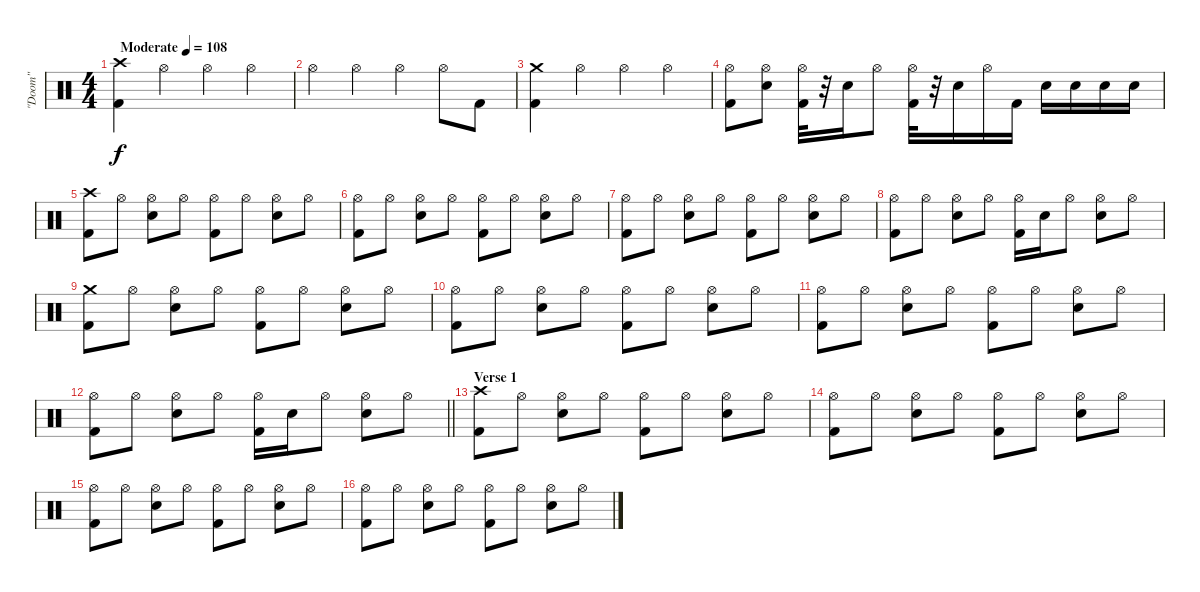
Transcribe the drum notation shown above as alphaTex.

\track ("\"Doom\"" "\"Doom\"") {instrument percussion}
\staff {score}
\articulation defaults
\ts (4 4)
\tempo (108 "Moderate")
\clef neutral
\ks c
("Crash high (hit)" "Kick (hit) 2").4{dy f} "Hi-Hat (open)".4 "Hi-Hat (open)".4 "Hi-Hat (open)".4 |
"Hi-Hat (open)".4 "Hi-Hat (open)".4 "Hi-Hat (open)".4 "Hi-Hat (open)".8 "Kick (hit) 2".8 |
("Crash medium (hit)" "Kick (hit) 2").4 "Hi-Hat (open)".4 "Hi-Hat (open)".4 "Hi-Hat (open)".4 |
("Hi-Hat (open)" "Kick (hit) 2").8 ("Hi-Hat (open)" "Snare (hit) 2").8 ("Hi-Hat (open)" "Kick (hit) 2").32 r.32 "Snare (hit) 2".16 "Hi-Hat (open)".8 ("Hi-Hat (open)" "Kick (hit) 2").32 r.32 "Snare (hit) 2".16 "Hi-Hat (open)".16 "Kick (hit) 2".16 "Snare (hit) 2".16 "Snare (hit) 2".16 "Snare (hit) 2".16 "Snare (hit) 2".16 |
("Crash high (hit)" "Kick (hit) 2").8 "Hi-Hat (open)".8 ("Hi-Hat (open)" "Snare (hit) 2").8 "Hi-Hat (open)".8 ("Hi-Hat (open)" "Kick (hit) 2").8 "Hi-Hat (open)".8 ("Hi-Hat (open)" "Snare (hit) 2").8 "Hi-Hat (open)".8 |
("Hi-Hat (open)" "Kick (hit) 2").8 "Hi-Hat (open)".8 ("Hi-Hat (open)" "Snare (hit) 2").8 "Hi-Hat (open)".8 ("Hi-Hat (open)" "Kick (hit) 2").8 "Hi-Hat (open)".8 ("Hi-Hat (open)" "Snare (hit) 2").8 "Hi-Hat (open)".8 |
("Hi-Hat (open)" "Kick (hit) 2").8 "Hi-Hat (open)".8 ("Hi-Hat (open)" "Snare (hit) 2").8 "Hi-Hat (open)".8 ("Hi-Hat (open)" "Kick (hit) 2").8 "Hi-Hat (open)".8 ("Hi-Hat (open)" "Snare (hit) 2").8 "Hi-Hat (open)".8 |
("Hi-Hat (open)" "Kick (hit) 2").8 "Hi-Hat (open)".8 ("Hi-Hat (open)" "Snare (hit) 2").8 "Hi-Hat (open)".8 ("Hi-Hat (open)" "Kick (hit) 2").16 "Snare (hit) 2".16 "Hi-Hat (open)".8 ("Hi-Hat (open)" "Snare (hit) 2").8 "Hi-Hat (open)".8 |
("Crash medium (hit)" "Kick (hit) 2").8 "Hi-Hat (open)".8 ("Hi-Hat (open)" "Snare (hit) 2").8 "Hi-Hat (open)".8 ("Hi-Hat (open)" "Kick (hit) 2").8 "Hi-Hat (open)".8 ("Hi-Hat (open)" "Snare (hit) 2").8 "Hi-Hat (open)".8 |
("Hi-Hat (open)" "Kick (hit) 2").8 "Hi-Hat (open)".8 ("Hi-Hat (open)" "Snare (hit) 2").8 "Hi-Hat (open)".8 ("Hi-Hat (open)" "Kick (hit) 2").8 "Hi-Hat (open)".8 ("Hi-Hat (open)" "Snare (hit) 2").8 "Hi-Hat (open)".8 |
("Hi-Hat (open)" "Kick (hit) 2").8 "Hi-Hat (open)".8 ("Hi-Hat (open)" "Snare (hit) 2").8 "Hi-Hat (open)".8 ("Hi-Hat (open)" "Kick (hit) 2").8 "Hi-Hat (open)".8 ("Hi-Hat (open)" "Snare (hit) 2").8 "Hi-Hat (open)".8 |
\barLineRight lightlight
("Hi-Hat (open)" "Kick (hit) 2").8 "Hi-Hat (open)".8 ("Hi-Hat (open)" "Snare (hit) 2").8 "Hi-Hat (open)".8 ("Hi-Hat (open)" "Kick (hit) 2").16 "Snare (hit) 2".16 "Hi-Hat (open)".8 ("Hi-Hat (open)" "Snare (hit) 2").8 "Hi-Hat (open)".8 |
\section ("" "Verse 1")
("Crash high (hit)" "Kick (hit) 2").8 "Hi-Hat (open)".8 ("Hi-Hat (open)" "Snare (hit) 2").8 "Hi-Hat (open)".8 ("Hi-Hat (open)" "Kick (hit) 2").8 "Hi-Hat (open)".8 ("Hi-Hat (open)" "Snare (hit) 2").8 "Hi-Hat (open)".8 |
("Hi-Hat (open)" "Kick (hit) 2").8 "Hi-Hat (open)".8 ("Hi-Hat (open)" "Snare (hit) 2").8 "Hi-Hat (open)".8 ("Hi-Hat (open)" "Kick (hit) 2").8 "Hi-Hat (open)".8 ("Hi-Hat (open)" "Snare (hit) 2").8 "Hi-Hat (open)".8 |
("Hi-Hat (open)" "Kick (hit) 2").8 "Hi-Hat (open)".8 ("Hi-Hat (open)" "Snare (hit) 2").8 "Hi-Hat (open)".8 ("Hi-Hat (open)" "Kick (hit) 2").8 "Hi-Hat (open)".8 ("Hi-Hat (open)" "Snare (hit) 2").8 "Hi-Hat (open)".8 |
("Hi-Hat (open)" "Kick (hit) 2").8 "Hi-Hat (open)".8 ("Hi-Hat (open)" "Snare (hit) 2").8 "Hi-Hat (open)".8 ("Hi-Hat (open)" "Kick (hit) 2").8 "Hi-Hat (open)".8 ("Hi-Hat (open)" "Snare (hit) 2").8 "Hi-Hat (open)".8
